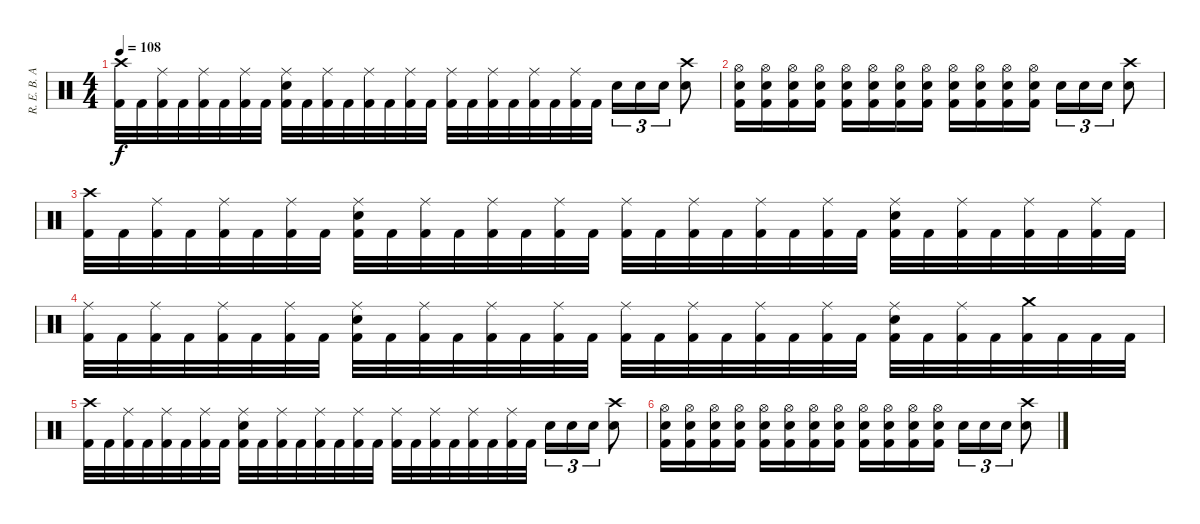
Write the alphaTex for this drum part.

\track ("R. E. B. A." "R. E. B. A") {instrument percussion}
\staff {score}
\articulation defaults
\ts (4 4)
\tempo 108
\clef neutral
\ks c
("Crash high (hit)" "Kick (hit) 2").32{dy f} "Kick (hit) 2".32 ("Ride (middle)" "Kick (hit) 2").32 "Kick (hit) 2".32 ("Ride (middle)" "Kick (hit) 2").32 "Kick (hit) 2".32 ("Ride (middle)" "Kick (hit) 2").32 "Kick (hit) 2".32 ("Ride (middle)" "Snare (hit) 2" "Kick (hit) 2").32 "Kick (hit) 2".32 ("Ride (middle)" "Kick (hit) 2").32 "Kick (hit) 2".32 ("Ride (middle)" "Kick (hit) 2").32 "Kick (hit) 2".32 ("Ride (middle)" "Kick (hit) 2").32 "Kick (hit) 2".32 ("Ride (middle)" "Kick (hit) 2").32 "Kick (hit) 2".32 ("Ride (middle)" "Kick (hit) 2").32 "Kick (hit) 2".32 ("Ride (middle)" "Kick (hit) 2").32 "Kick (hit) 2".32 ("Ride (middle)" "Kick (hit) 2").32 "Kick (hit) 2".32 "Snare (hit) 2".16{tu (3 2)} "Snare (hit) 2".16{tu (3 2)} "Snare (hit) 2".16{tu (3 2)} ("Crash high (hit)" "Snare (hit) 2").8 |
("Hi-Hat (open)" "Snare (hit) 2" "Kick (hit) 2").16 ("Hi-Hat (open)" "Snare (hit) 2" "Kick (hit) 2").16 ("Hi-Hat (open)" "Snare (hit) 2" "Kick (hit) 2").16 ("Hi-Hat (open)" "Snare (hit) 2" "Kick (hit) 2").16 ("Hi-Hat (open)" "Snare (hit) 2" "Kick (hit) 2").16 ("Hi-Hat (open)" "Snare (hit) 2" "Kick (hit) 2").16 ("Hi-Hat (open)" "Snare (hit) 2" "Kick (hit) 2").16 ("Hi-Hat (open)" "Snare (hit) 2" "Kick (hit) 2").16 ("Hi-Hat (open)" "Snare (hit) 2" "Kick (hit) 2").16 ("Hi-Hat (open)" "Snare (hit) 2" "Kick (hit) 2").16 ("Hi-Hat (open)" "Snare (hit) 2" "Kick (hit) 2").16 ("Hi-Hat (open)" "Snare (hit) 2" "Kick (hit) 2").16 "Snare (hit) 2".16{tu (3 2)} "Snare (hit) 2".16{tu (3 2)} "Snare (hit) 2".16{tu (3 2)} ("Crash high (hit)" "Snare (hit) 2").8 |
("Crash high (hit)" "Kick (hit) 2").32 "Kick (hit) 2".32 ("Ride (middle)" "Kick (hit) 2").32 "Kick (hit) 2".32 ("Ride (middle)" "Kick (hit) 2").32 "Kick (hit) 2".32 ("Ride (middle)" "Kick (hit) 2").32 "Kick (hit) 2".32 ("Ride (middle)" "Snare (hit) 2" "Kick (hit) 2").32 "Kick (hit) 2".32 ("Ride (middle)" "Kick (hit) 2").32 "Kick (hit) 2".32 ("Ride (middle)" "Kick (hit) 2").32 "Kick (hit) 2".32 ("Ride (middle)" "Kick (hit) 2").32 "Kick (hit) 2".32 ("Ride (middle)" "Kick (hit) 2").32 "Kick (hit) 2".32 ("Ride (middle)" "Kick (hit) 2").32 "Kick (hit) 2".32 ("Ride (middle)" "Kick (hit) 2").32 "Kick (hit) 2".32 ("Ride (middle)" "Kick (hit) 2").32 "Kick (hit) 2".32 ("Ride (middle)" "Snare (hit) 2" "Kick (hit) 2").32 "Kick (hit) 2".32 ("Ride (middle)" "Kick (hit) 2").32 "Kick (hit) 2".32 ("Ride (middle)" "Kick (hit) 2").32 "Kick (hit) 2".32 ("Ride (middle)" "Kick (hit) 2").32 "Kick (hit) 2".32 |
("Ride (middle)" "Kick (hit) 2").32 "Kick (hit) 2".32 ("Ride (middle)" "Kick (hit) 2").32 "Kick (hit) 2".32 ("Ride (middle)" "Kick (hit) 2").32 "Kick (hit) 2".32 ("Ride (middle)" "Kick (hit) 2").32 "Kick (hit) 2".32 ("Ride (middle)" "Snare (hit) 2" "Kick (hit) 2").32 "Kick (hit) 2".32 ("Ride (middle)" "Kick (hit) 2").32 "Kick (hit) 2".32 ("Ride (middle)" "Kick (hit) 2").32 "Kick (hit) 2".32 ("Ride (middle)" "Kick (hit) 2").32 "Kick (hit) 2".32 ("Ride (middle)" "Kick (hit) 2").32 "Kick (hit) 2".32 ("Ride (middle)" "Kick (hit) 2").32 "Kick (hit) 2".32 ("Ride (middle)" "Kick (hit) 2").32 "Kick (hit) 2".32 ("Ride (middle)" "Kick (hit) 2").32 "Kick (hit) 2".32 ("Ride (middle)" "Snare (hit) 2" "Kick (hit) 2").32 "Kick (hit) 2".32 ("Ride (middle)" "Kick (hit) 2").32 "Kick (hit) 2".32 ("Crash medium (hit)" "Kick (hit) 2").32 "Kick (hit) 2".32 "Kick (hit) 2".32 "Kick (hit) 2".32 |
("Crash high (hit)" "Kick (hit) 2").32 "Kick (hit) 2".32 ("Ride (middle)" "Kick (hit) 2").32 "Kick (hit) 2".32 ("Ride (middle)" "Kick (hit) 2").32 "Kick (hit) 2".32 ("Ride (middle)" "Kick (hit) 2").32 "Kick (hit) 2".32 ("Ride (middle)" "Snare (hit) 2" "Kick (hit) 2").32 "Kick (hit) 2".32 ("Ride (middle)" "Kick (hit) 2").32 "Kick (hit) 2".32 ("Ride (middle)" "Kick (hit) 2").32 "Kick (hit) 2".32 ("Ride (middle)" "Kick (hit) 2").32 "Kick (hit) 2".32 ("Ride (middle)" "Kick (hit) 2").32 "Kick (hit) 2".32 ("Ride (middle)" "Kick (hit) 2").32 "Kick (hit) 2".32 ("Ride (middle)" "Kick (hit) 2").32 "Kick (hit) 2".32 ("Ride (middle)" "Kick (hit) 2").32 "Kick (hit) 2".32 "Snare (hit) 2".16{tu (3 2)} "Snare (hit) 2".16{tu (3 2)} "Snare (hit) 2".16{tu (3 2)} ("Crash high (hit)" "Snare (hit) 2").8 |
("Hi-Hat (open)" "Snare (hit) 2" "Kick (hit) 2").16 ("Hi-Hat (open)" "Snare (hit) 2" "Kick (hit) 2").16 ("Hi-Hat (open)" "Snare (hit) 2" "Kick (hit) 2").16 ("Hi-Hat (open)" "Snare (hit) 2" "Kick (hit) 2").16 ("Hi-Hat (open)" "Snare (hit) 2" "Kick (hit) 2").16 ("Hi-Hat (open)" "Snare (hit) 2" "Kick (hit) 2").16 ("Hi-Hat (open)" "Snare (hit) 2" "Kick (hit) 2").16 ("Hi-Hat (open)" "Snare (hit) 2" "Kick (hit) 2").16 ("Hi-Hat (open)" "Snare (hit) 2" "Kick (hit) 2").16 ("Hi-Hat (open)" "Snare (hit) 2" "Kick (hit) 2").16 ("Hi-Hat (open)" "Snare (hit) 2" "Kick (hit) 2").16 ("Hi-Hat (open)" "Snare (hit) 2" "Kick (hit) 2").16 "Snare (hit) 2".16{tu (3 2)} "Snare (hit) 2".16{tu (3 2)} "Snare (hit) 2".16{tu (3 2)} ("Crash high (hit)" "Snare (hit) 2").8
